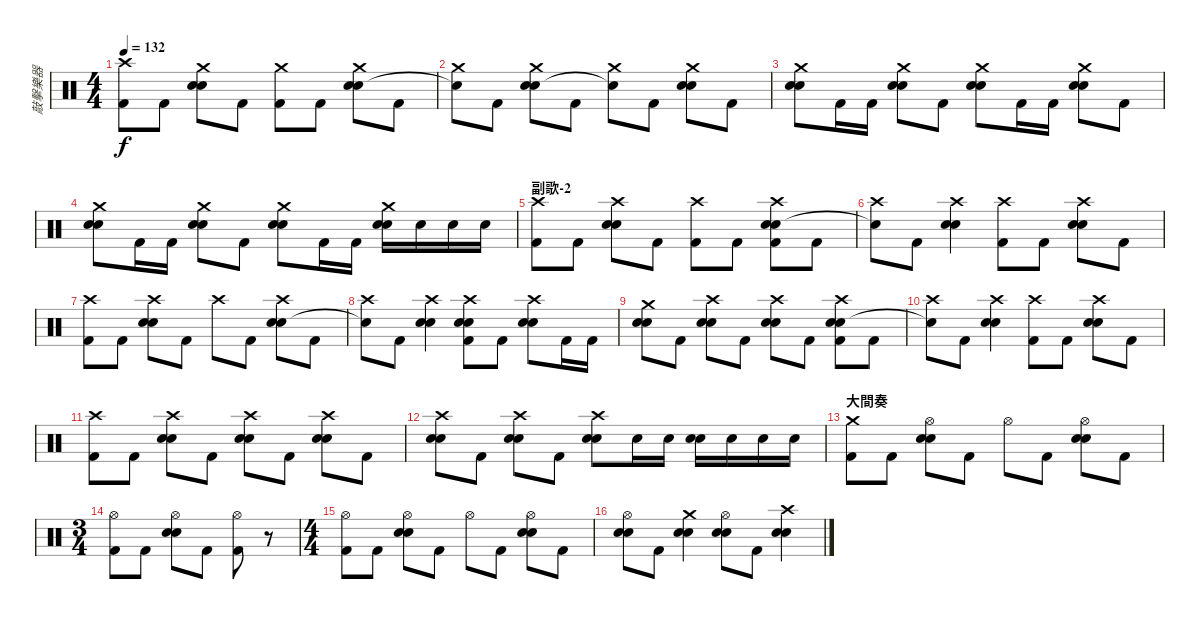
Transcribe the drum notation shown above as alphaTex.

\track ("敲擊樂器" "敲擊樂器") {instrument percussion}
\staff {score}
\articulation defaults
\ts (4 4)
\tempo 132
\clef neutral
\ks c
("Crash high (hit)" "Kick (hit) 2").8{dy f} "Kick (hit) 2".8 ("Crash medium (hit)" "Electric Snare (hit)" "Snare (hit) 2").8 "Kick (hit) 2".8 ("Crash medium (hit)" "Kick (hit) 2").8 "Kick (hit) 2".8 ("Crash medium (hit)" "Electric Snare (hit)" "Snare (hit) 2").8 "Kick (hit) 2".8 |
("Crash medium (hit)" "Snare (hit)"{t}).8 "Kick (hit) 2".8 ("Crash medium (hit)" "Electric Snare (hit)" "Snare (hit) 2").8 "Kick (hit) 2".8 ("Crash medium (hit)" "Snare (hit)"{t}).8 "Kick (hit) 2".8 ("Crash medium (hit)" "Electric Snare (hit)" "Snare (hit) 2").8 "Kick (hit) 2".8 |
("Crash medium (hit)" "Electric Snare (hit)" "Snare (hit) 2").8 "Kick (hit) 2".16 "Kick (hit) 2".16 ("Crash medium (hit)" "Electric Snare (hit)" "Snare (hit) 2").8 "Kick (hit) 2".8 ("Crash medium (hit)" "Electric Snare (hit)" "Snare (hit) 2").8 "Kick (hit) 2".16 "Kick (hit) 2".16 ("Crash medium (hit)" "Electric Snare (hit)" "Snare (hit) 2").8 "Kick (hit) 2".8 |
("Crash medium (hit)" "Electric Snare (hit)" "Snare (hit) 2").8 "Kick (hit) 2".16 "Kick (hit) 2".16 ("Crash medium (hit)" "Electric Snare (hit)" "Snare (hit) 2").8 "Kick (hit) 2".8 ("Crash medium (hit)" "Electric Snare (hit)" "Snare (hit) 2").8 "Kick (hit) 2".16 "Kick (hit) 2".16 ("Crash medium (hit)" "Electric Snare (hit)" "Snare (hit) 2").16 "Snare (hit) 2".16 "Snare (hit) 2".16 "Snare (hit) 2".16 |
\section ("" "副歌-2")
("Crash high (hit)" "Kick (hit) 2").8 "Kick (hit) 2".8 ("Crash high (hit)" "Electric Snare (hit)" "Snare (hit) 2").8 "Kick (hit) 2".8 ("Crash high (hit)" "Kick (hit) 2").8 "Kick (hit) 2".8 ("Crash high (hit)" "Electric Snare (hit)" "Snare (hit) 2" "Kick (hit) 2").8 "Kick (hit) 2".8 |
("Crash high (hit)" "Snare (hit)"{t}).8 "Kick (hit) 2".8 ("Crash high (hit)" "Electric Snare (hit)" "Snare (hit) 2").4 ("Crash high (hit)" "Kick (hit) 2").8 "Kick (hit) 2".8 ("Crash high (hit)" "Electric Snare (hit)" "Snare (hit) 2").8 "Kick (hit) 2".8 |
("Crash high (hit)" "Kick (hit) 2").8 "Kick (hit) 2".8 ("Crash high (hit)" "Electric Snare (hit)" "Snare (hit) 2").8 "Kick (hit) 2".8 "Crash high (hit)".8 "Kick (hit) 2".8 ("Crash high (hit)" "Electric Snare (hit)" "Snare (hit) 2").8 "Kick (hit) 2".8 |
("Crash high (hit)" "Snare (hit)"{t}).8 "Kick (hit) 2".8 ("Crash high (hit)" "Electric Snare (hit)" "Snare (hit) 2").4 ("Crash high (hit)" "Electric Snare (hit)" "Snare (hit) 2" "Kick (hit) 2").8 "Kick (hit) 2".8 ("Crash high (hit)" "Electric Snare (hit)" "Snare (hit) 2").8 "Kick (hit) 2".16 "Kick (hit) 2".16 |
("Crash medium (hit)" "Electric Snare (hit)" "Snare (hit) 2").8 "Kick (hit) 2".8 ("Crash high (hit)" "Electric Snare (hit)" "Snare (hit) 2").8 "Kick (hit) 2".8 ("Crash high (hit)" "Electric Snare (hit)" "Snare (hit) 2").8 "Kick (hit) 2".8 ("Crash high (hit)" "Electric Snare (hit)" "Snare (hit) 2" "Kick (hit) 2").8 "Kick (hit) 2".8 |
("Crash high (hit)" "Snare (hit)"{t}).8 "Kick (hit) 2".8 ("Crash high (hit)" "Electric Snare (hit)" "Snare (hit) 2").4 ("Crash high (hit)" "Kick (hit) 2").8 "Kick (hit) 2".8 ("Crash high (hit)" "Electric Snare (hit)" "Snare (hit) 2").8 "Kick (hit) 2".8 |
("Crash high (hit)" "Kick (hit) 2").8 "Kick (hit) 2".8 ("Crash high (hit)" "Electric Snare (hit)" "Snare (hit) 2").8 "Kick (hit) 2".8 ("Crash high (hit)" "Electric Snare (hit)" "Snare (hit) 2").8 "Kick (hit) 2".8 ("Crash high (hit)" "Electric Snare (hit)" "Snare (hit) 2").8 "Kick (hit) 2".8 |
("Crash high (hit)" "Electric Snare (hit)" "Snare (hit) 2").8 "Kick (hit) 2".8 ("Crash high (hit)" "Electric Snare (hit)" "Snare (hit) 2").8 "Kick (hit) 2".8 ("Crash high (hit)" "Electric Snare (hit)" "Snare (hit) 2").8 "Snare (hit) 2".16 "Snare (hit) 2".16 ("Electric Snare (hit)" "Snare (hit) 2").16 "Snare (hit) 2".16 "Snare (hit) 2".16 "Snare (hit) 2".16 |
\section ("" "大間奏")
("Crash medium (hit)" "Kick (hit) 2").8 "Kick (hit) 2".8 ("Hi-Hat (open)" "Electric Snare (hit)" "Snare (hit) 2").8 "Kick (hit) 2".8 "Hi-Hat (open)".8 "Kick (hit) 2".8 ("Hi-Hat (open)" "Electric Snare (hit)" "Snare (hit) 2").8 "Kick (hit) 2".8 |
\ts (3 4)
("Hi-Hat (open)" "Kick (hit) 2").8 "Kick (hit) 2".8 ("Hi-Hat (open)" "Electric Snare (hit)" "Snare (hit) 2").8 "Kick (hit) 2".8 ("Hi-Hat (open)" "Kick (hit) 2").8 r.8 |
\ts (4 4)
("Hi-Hat (open)" "Kick (hit) 2").8 "Kick (hit) 2".8 ("Hi-Hat (open)" "Electric Snare (hit)" "Snare (hit) 2").8 "Kick (hit) 2".8 "Hi-Hat (open)".8 "Kick (hit) 2".8 ("Hi-Hat (open)" "Electric Snare (hit)" "Snare (hit) 2").8 "Kick (hit) 2".8 |
("Hi-Hat (open)" "Electric Snare (hit)" "Snare (hit) 2").8 "Kick (hit) 2".8 ("Crash medium (hit)" "Electric Snare (hit)" "Snare (hit) 2").4 ("Hi-Hat (open)" "Electric Snare (hit)" "Snare (hit) 2").8 "Kick (hit) 2".8 ("Crash high (hit)" "Electric Snare (hit)" "Snare (hit) 2").4
